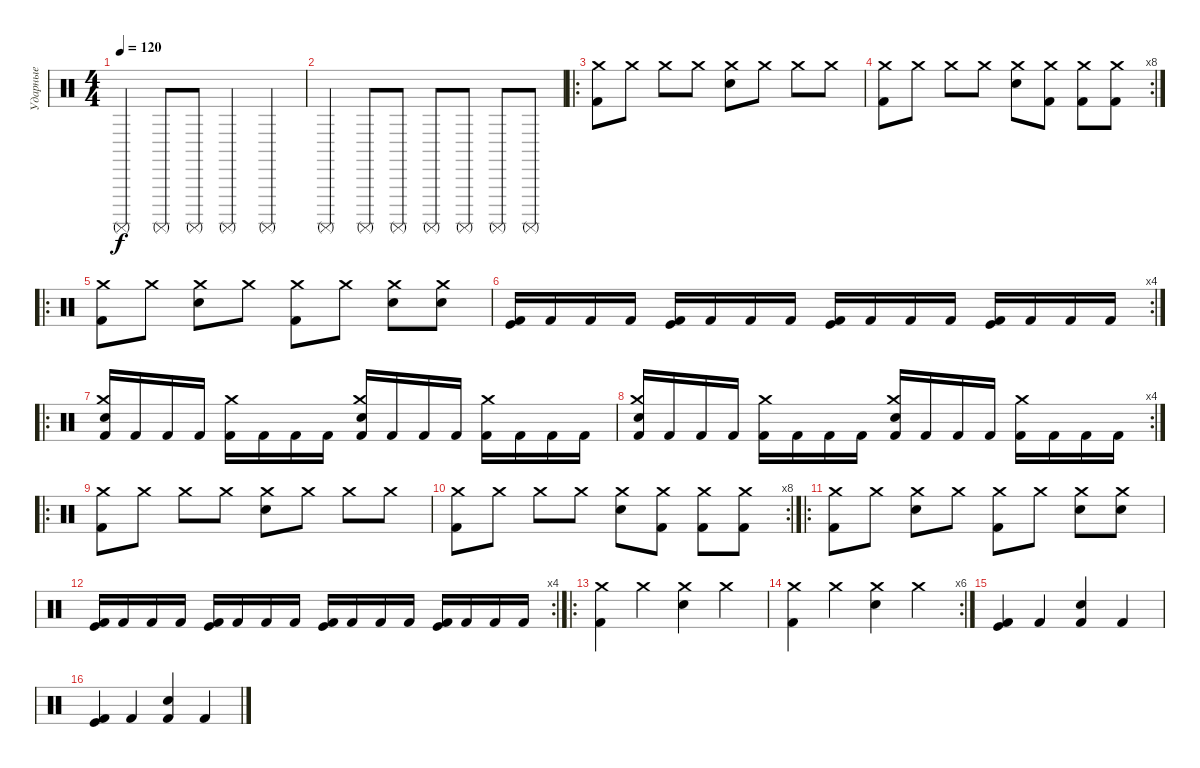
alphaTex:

\track ("Ударные" "Ударные") {instrument percussion}
\staff {score}
\articulation defaults
\ts (4 4)
\tempo 120
\clef neutral
\ks c "Surdo (mute)".4{dy f} "Surdo (mute)".8 "Surdo (mute)".8 "Surdo (mute)".4 "Surdo (mute)".4
|
"Surdo (mute)".4 "Surdo (mute)".8{volume 5} "Surdo (mute)".8{volume 7} "Surdo (mute)".8{volume 9} "Surdo (mute)".8{volume 11} "Surdo (mute)".8{volume 14} "Surdo (mute)".8{volume 15} |
\ro
("Kick (hit) 2" "Crash medium (hit)").8 "Crash medium (hit)".8 "Crash medium (hit)".8 "Crash medium (hit)".8 ("Crash medium (hit)" "Snare (hit) 2").8 "Crash medium (hit)".8 "Crash medium (hit)".8 "Crash medium (hit)".8 |
\rc 8
("Kick (hit) 2" "Crash medium (hit)").8 "Crash medium (hit)".8 "Crash medium (hit)".8 "Crash medium (hit)".8 ("Crash medium (hit)" "Snare (hit) 2").8 ("Kick (hit) 2" "Crash medium (hit)").8 ("Kick (hit) 2" "Crash medium (hit)").8 ("Kick (hit) 2" "Crash medium (hit)").8 |
\ro
("Kick (hit) 2" "Crash medium (hit)").8 "Crash medium (hit)".8 ("Crash medium (hit)" "Snare (hit) 2").8 "Crash medium (hit)".8 ("Kick (hit) 2" "Crash medium (hit)").8 "Crash medium (hit)".8 ("Crash medium (hit)" "Snare (hit) 2").8 ("Crash medium (hit)" "Snare (hit) 2").8 |
\rc 4
("Kick (hit) 2" "Kick (hit)").16 "Kick (hit) 2".16 "Kick (hit) 2".16 "Kick (hit) 2".16 ("Kick (hit) 2" "Kick (hit)").16 "Kick (hit) 2".16 "Kick (hit) 2".16 "Kick (hit) 2".16 ("Kick (hit) 2" "Kick (hit)").16 "Kick (hit) 2".16 "Kick (hit) 2".16 "Kick (hit) 2".16 ("Kick (hit) 2" "Kick (hit)").16 "Kick (hit) 2".16 "Kick (hit) 2".16 "Kick (hit) 2".16 |
\ro
("Kick (hit) 2" "Crash medium (hit)" "Snare (hit) 2").16 "Kick (hit) 2".16 "Kick (hit) 2".16 "Kick (hit) 2".16 ("Kick (hit) 2" "Crash medium (hit)").16 "Kick (hit) 2".16 "Kick (hit) 2".16 "Kick (hit) 2".16 ("Kick (hit) 2" "Crash medium (hit)" "Snare (hit) 2").16 "Kick (hit) 2".16 "Kick (hit) 2".16 "Kick (hit) 2".16 ("Kick (hit) 2" "Crash medium (hit)").16 "Kick (hit) 2".16 "Kick (hit) 2".16 "Kick (hit) 2".16 |
\rc 4
("Kick (hit) 2" "Crash medium (hit)" "Snare (hit) 2").16 "Kick (hit) 2".16 "Kick (hit) 2".16 "Kick (hit) 2".16 ("Kick (hit) 2" "Crash medium (hit)").16 "Kick (hit) 2".16 "Kick (hit) 2".16 "Kick (hit) 2".16 ("Kick (hit) 2" "Crash medium (hit)" "Snare (hit) 2").16 "Kick (hit) 2".16 "Kick (hit) 2".16 "Kick (hit) 2".16 ("Kick (hit) 2" "Crash medium (hit)").16 "Kick (hit) 2".16 "Kick (hit) 2".16 "Kick (hit) 2".16 |
\ro
("Kick (hit) 2" "Crash medium (hit)").8 "Crash medium (hit)".8 "Crash medium (hit)".8 "Crash medium (hit)".8 ("Crash medium (hit)" "Snare (hit) 2").8 "Crash medium (hit)".8 "Crash medium (hit)".8 "Crash medium (hit)".8 |
\rc 8
("Kick (hit) 2" "Crash medium (hit)").8 "Crash medium (hit)".8 "Crash medium (hit)".8 "Crash medium (hit)".8 ("Crash medium (hit)" "Snare (hit) 2").8 ("Kick (hit) 2" "Crash medium (hit)").8 ("Kick (hit) 2" "Crash medium (hit)").8 ("Kick (hit) 2" "Crash medium (hit)").8 |
\ro
("Kick (hit) 2" "Crash medium (hit)").8 "Crash medium (hit)".8 ("Crash medium (hit)" "Snare (hit) 2").8 "Crash medium (hit)".8 ("Kick (hit) 2" "Crash medium (hit)").8 "Crash medium (hit)".8 ("Crash medium (hit)" "Snare (hit) 2").8 ("Crash medium (hit)" "Snare (hit) 2").8 |
\rc 4
("Kick (hit) 2" "Kick (hit)").16 "Kick (hit) 2".16 "Kick (hit) 2".16 "Kick (hit) 2".16 ("Kick (hit) 2" "Kick (hit)").16 "Kick (hit) 2".16 "Kick (hit) 2".16 "Kick (hit) 2".16 ("Kick (hit) 2" "Kick (hit)").16 "Kick (hit) 2".16 "Kick (hit) 2".16 "Kick (hit) 2".16 ("Kick (hit) 2" "Kick (hit)").16 "Kick (hit) 2".16 "Kick (hit) 2".16 "Kick (hit) 2".16 |
\ro
("Kick (hit) 2" "Crash medium (hit)").4 "Crash medium (hit)".4 ("Crash medium (hit)" "Snare (hit) 2").4 "Crash medium (hit)".4 |
\rc 6
("Kick (hit) 2" "Crash medium (hit)").4 "Crash medium (hit)".4 ("Crash medium (hit)" "Snare (hit) 2").4 "Crash medium (hit)".4 |
("Kick (hit) 2" "Kick (hit)").4 "Kick (hit) 2".4 ("Kick (hit) 2" "Snare (hit) 2").4 "Kick (hit) 2".4 |
("Kick (hit) 2" "Kick (hit)").4 "Kick (hit) 2".4 ("Kick (hit) 2" "Snare (hit) 2").4 "Kick (hit) 2".4
